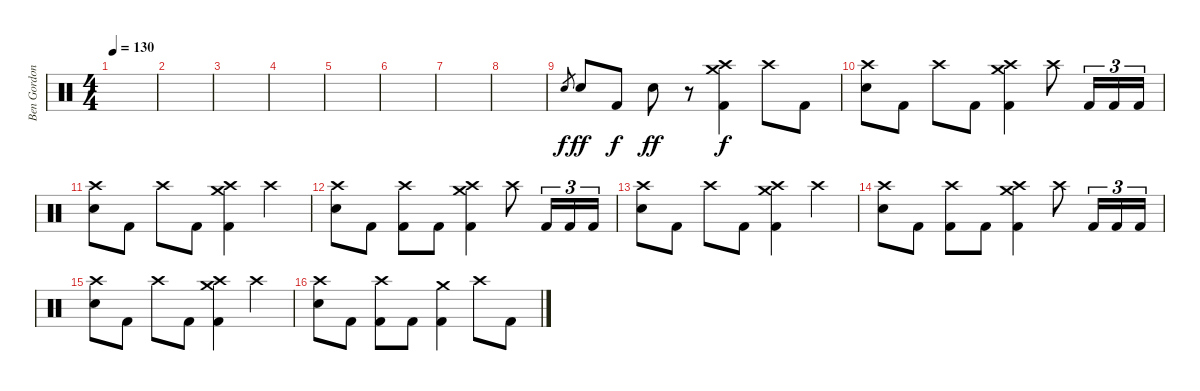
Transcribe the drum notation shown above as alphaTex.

\track ("Ben Gordon" "Ben Gordon") {instrument percussion}
\staff {score}
\articulation defaults
\ts (4 4)
\tempo 130
\clef neutral
\ks c
|
|
|
|
|
|
|
|
"Snare (hit) 2".8{gr} "Snare (hit) 2".8{dy ff} "Kick (hit) 2".8{dy f} "Snare (hit) 2".8{dy ff} r.8 ("Crash medium (hit)" "Crash high (hit)" "Kick (hit) 2").4{dy f} "Crash high (hit)".8 "Kick (hit) 2".8 |
("Crash high (hit)" "Snare (hit) 2").8 "Kick (hit) 2".8 "Crash high (hit)".8 "Kick (hit) 2".8 ("Crash medium (hit)" "Crash high (hit)" "Kick (hit) 2").4 "Crash high (hit)".8 "Kick (hit) 2".16{tu (3 2)} "Kick (hit) 2".16{tu (3 2)} "Kick (hit) 2".16{tu (3 2)} |
("Crash high (hit)" "Snare (hit) 2").8 "Kick (hit) 2".8 "Crash high (hit)".8 "Kick (hit) 2".8 ("Crash medium (hit)" "Crash high (hit)" "Kick (hit) 2").4 "Crash high (hit)".4 |
("Crash high (hit)" "Snare (hit) 2").8 "Kick (hit) 2".8 ("Crash high (hit)" "Kick (hit) 2").8 "Kick (hit) 2".8 ("Crash medium (hit)" "Crash high (hit)" "Kick (hit) 2").4 "Crash high (hit)".8 "Kick (hit) 2".16{tu (3 2)} "Kick (hit) 2".16{tu (3 2)} "Kick (hit) 2".16{tu (3 2)} |
("Crash high (hit)" "Snare (hit) 2").8 "Kick (hit) 2".8 "Crash high (hit)".8 "Kick (hit) 2".8 ("Crash medium (hit)" "Crash high (hit)" "Kick (hit) 2").4 "Crash high (hit)".4 |
("Crash high (hit)" "Snare (hit) 2").8 "Kick (hit) 2".8 ("Crash high (hit)" "Kick (hit) 2").8 "Kick (hit) 2".8 ("Crash medium (hit)" "Crash high (hit)" "Kick (hit) 2").4 "Crash high (hit)".8 "Kick (hit) 2".16{tu (3 2)} "Kick (hit) 2".16{tu (3 2)} "Kick (hit) 2".16{tu (3 2)} |
("Crash high (hit)" "Snare (hit) 2").8 "Kick (hit) 2".8 "Crash high (hit)".8 "Kick (hit) 2".8 ("Crash medium (hit)" "Crash high (hit)" "Kick (hit) 2").4 "Crash high (hit)".4 |
("Crash high (hit)" "Snare (hit) 2").8 "Kick (hit) 2".8 ("Crash high (hit)" "Kick (hit) 2").8 "Kick (hit) 2".8 ("Crash medium (hit)" "Kick (hit) 2").4 "Crash high (hit)".8 "Kick (hit) 2".8
